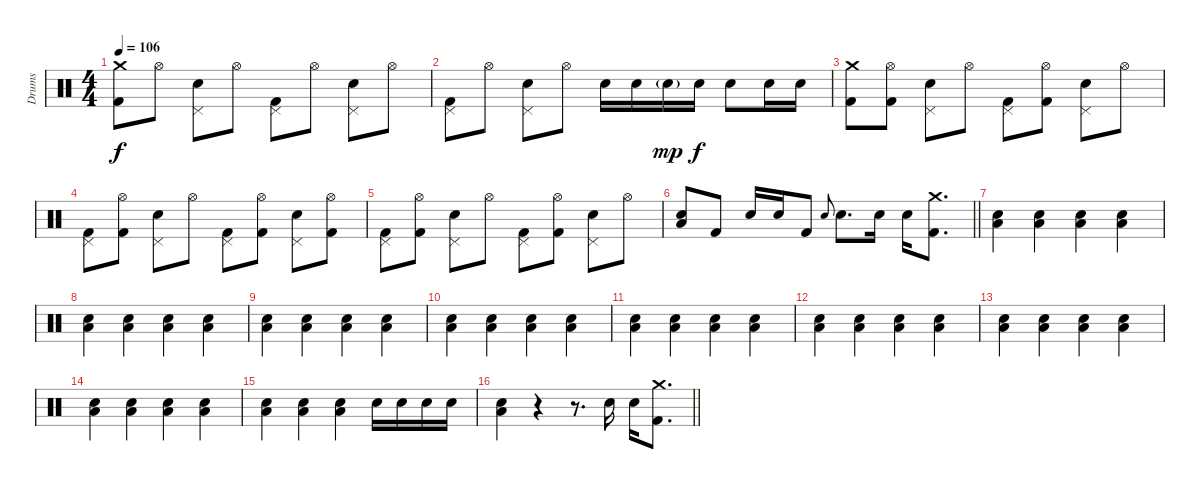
\track ("Drums" "Drums") {instrument percussion}
\staff {score}
\articulation defaults
\ts (4 4)
\tempo 106
\clef neutral
\ks c
("Crash medium (hit)" "Kick (hit) 2").8{dy f} "Hi-Hat (open)".8 ("Pedal Hi-Hat (hit)" "Electric Snare (hit)").8 "Hi-Hat (open)".8 ("Pedal Hi-Hat (hit)" "Kick (hit) 2").8 "Hi-Hat (open)".8 ("Pedal Hi-Hat (hit)" "Electric Snare (hit)").8 "Hi-Hat (open)".8 |
("Pedal Hi-Hat (hit)" "Kick (hit) 2").8 "Hi-Hat (open)".8 ("Pedal Hi-Hat (hit)" "Electric Snare (hit)").8 "Hi-Hat (open)".8 "Electric Snare (hit)".16 "Electric Snare (hit)".16 "Electric Snare (hit)"{g}.16{dy mp} "Electric Snare (hit)".16{dy f} "Electric Snare (hit)".8 "Electric Snare (hit)".16 "Electric Snare (hit)".16 |
("Crash medium (hit)" "Kick (hit) 2").8 ("Hi-Hat (open)" "Kick (hit) 2").8 ("Pedal Hi-Hat (hit)" "Electric Snare (hit)").8 "Hi-Hat (open)".8 ("Pedal Hi-Hat (hit)" "Kick (hit) 2").8 ("Hi-Hat (open)" "Kick (hit) 2").8 ("Pedal Hi-Hat (hit)" "Electric Snare (hit)").8 "Hi-Hat (open)".8 |
("Pedal Hi-Hat (hit)" "Kick (hit) 2").8 ("Hi-Hat (open)" "Kick (hit) 2").8 ("Pedal Hi-Hat (hit)" "Electric Snare (hit)").8 "Hi-Hat (open)".8 ("Pedal Hi-Hat (hit)" "Kick (hit) 2").8 ("Hi-Hat (open)" "Kick (hit) 2").8 ("Pedal Hi-Hat (hit)" "Electric Snare (hit)").8 ("Hi-Hat (open)" "Kick (hit) 2").8 |
("Pedal Hi-Hat (hit)" "Kick (hit) 2").8 ("Hi-Hat (open)" "Kick (hit) 2").8 ("Pedal Hi-Hat (hit)" "Electric Snare (hit)").8 "Hi-Hat (open)".8 ("Pedal Hi-Hat (hit)" "Kick (hit) 2").8 ("Hi-Hat (open)" "Kick (hit) 2").8 ("Pedal Hi-Hat (hit)" "Electric Snare (hit)").8 "Hi-Hat (open)".8 |
\barLineRight lightlight
("Electric Snare (hit)" "Low Floor Tom (hit)").8 "Kick (hit) 2".8 "Electric Snare (hit)".16 "Electric Snare (hit)".16 "Kick (hit) 2".8 "Electric Snare (hit)".8{gr onbeat} "Electric Snare (hit)".8{d} "Electric Snare (hit)".16 "Electric Snare (hit)".16 ("Crash medium (hit)" "Kick (hit) 2").8{d} |
("Electric Snare (hit)" "Low Floor Tom (hit)").4 ("Electric Snare (hit)" "Low Floor Tom (hit)").4 ("Electric Snare (hit)" "Low Floor Tom (hit)").4 ("Electric Snare (hit)" "Low Floor Tom (hit)").4 |
("Electric Snare (hit)" "Low Floor Tom (hit)").4 ("Electric Snare (hit)" "Low Floor Tom (hit)").4 ("Electric Snare (hit)" "Low Floor Tom (hit)").4 ("Electric Snare (hit)" "Low Floor Tom (hit)").4 |
("Electric Snare (hit)" "Low Floor Tom (hit)").4 ("Electric Snare (hit)" "Low Floor Tom (hit)").4 ("Electric Snare (hit)" "Low Floor Tom (hit)").4 ("Electric Snare (hit)" "Low Floor Tom (hit)").4 |
("Electric Snare (hit)" "Low Floor Tom (hit)").4 ("Electric Snare (hit)" "Low Floor Tom (hit)").4 ("Electric Snare (hit)" "Low Floor Tom (hit)").4 ("Electric Snare (hit)" "Low Floor Tom (hit)").4 |
("Electric Snare (hit)" "Low Floor Tom (hit)").4 ("Electric Snare (hit)" "Low Floor Tom (hit)").4 ("Electric Snare (hit)" "Low Floor Tom (hit)").4 ("Electric Snare (hit)" "Low Floor Tom (hit)").4 |
("Electric Snare (hit)" "Low Floor Tom (hit)").4 ("Electric Snare (hit)" "Low Floor Tom (hit)").4 ("Electric Snare (hit)" "Low Floor Tom (hit)").4 ("Electric Snare (hit)" "Low Floor Tom (hit)").4 |
("Electric Snare (hit)" "Low Floor Tom (hit)").4 ("Electric Snare (hit)" "Low Floor Tom (hit)").4 ("Electric Snare (hit)" "Low Floor Tom (hit)").4 ("Electric Snare (hit)" "Low Floor Tom (hit)").4 |
("Electric Snare (hit)" "Low Floor Tom (hit)").4 ("Electric Snare (hit)" "Low Floor Tom (hit)").4 ("Electric Snare (hit)" "Low Floor Tom (hit)").4 ("Electric Snare (hit)" "Low Floor Tom (hit)").4 |
("Electric Snare (hit)" "Low Floor Tom (hit)").4 ("Electric Snare (hit)" "Low Floor Tom (hit)").4 ("Electric Snare (hit)" "Low Floor Tom (hit)").4 "Electric Snare (hit)".16 "Electric Snare (hit)".16 "Electric Snare (hit)".16 "Electric Snare (hit)".16 |
\barLineRight lightlight
("Electric Snare (hit)" "Low Floor Tom (hit)").4 r.4 r.8{d} "Electric Snare (hit)".16 "Electric Snare (hit)".16 ("Crash medium (hit)" "Kick (hit) 2").8{d}
